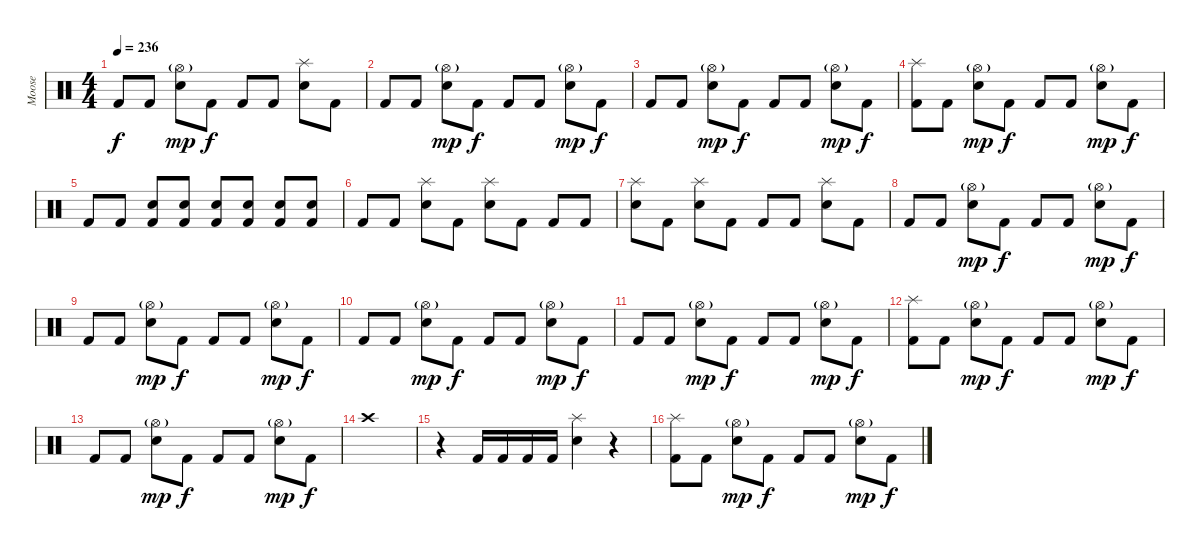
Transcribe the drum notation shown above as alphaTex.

\track ("Moose" "Moose") {instrument percussion}
\staff {score}
\articulation defaults
\ts (4 4)
\tempo 236
\clef neutral
\ks c "Kick (hit) 2".8{dy f} "Kick (hit) 2".8
("Hi-Hat (open)"{g} "Electric Snare (hit)").8{dy mp} "Kick (hit) 2".8{dy f} "Kick (hit) 2".8 "Kick (hit) 2".8 ("Splash (hit)" "Electric Snare (hit)").8 "Kick (hit) 2".8 |
"Kick (hit) 2".8 "Kick (hit) 2".8 ("Hi-Hat (open)"{g} "Electric Snare (hit)").8{dy mp} "Kick (hit) 2".8{dy f} "Kick (hit) 2".8 "Kick (hit) 2".8 ("Hi-Hat (open)"{g} "Electric Snare (hit)").8{dy mp} "Kick (hit) 2".8{dy f} |
"Kick (hit) 2".8 "Kick (hit) 2".8 ("Hi-Hat (open)"{g} "Electric Snare (hit)").8{dy mp} "Kick (hit) 2".8{dy f} "Kick (hit) 2".8 "Kick (hit) 2".8 ("Hi-Hat (open)"{g} "Electric Snare (hit)").8{dy mp} "Kick (hit) 2".8{dy f} |
("Splash (hit)" "Kick (hit) 2").8 "Kick (hit) 2".8 ("Hi-Hat (open)"{g} "Electric Snare (hit)").8{dy mp} "Kick (hit) 2".8{dy f} "Kick (hit) 2".8 "Kick (hit) 2".8 ("Hi-Hat (open)"{g} "Electric Snare (hit)").8{dy mp} "Kick (hit) 2".8{dy f} |
"Kick (hit) 2".8 "Kick (hit) 2".8 ("Electric Snare (hit)" "Kick (hit) 2").8 ("Electric Snare (hit)" "Kick (hit) 2").8 ("Electric Snare (hit)" "Kick (hit) 2").8 ("Electric Snare (hit)" "Kick (hit) 2").8 ("Electric Snare (hit)" "Kick (hit) 2").8 ("Electric Snare (hit)" "Kick (hit) 2").8 |
"Kick (hit) 2".8 "Kick (hit) 2".8 ("Splash (hit)" "Electric Snare (hit)").8 "Kick (hit) 2".8 ("Splash (hit)" "Electric Snare (hit)").8 "Kick (hit) 2".8 "Kick (hit) 2".8 "Kick (hit) 2".8 |
("Splash (hit)" "Electric Snare (hit)").8 "Kick (hit) 2".8 ("Splash (hit)" "Electric Snare (hit)").8 "Kick (hit) 2".8 "Kick (hit) 2".8 "Kick (hit) 2".8 ("Splash (hit)" "Electric Snare (hit)").8 "Kick (hit) 2".8 |
"Kick (hit) 2".8 "Kick (hit) 2".8 ("Hi-Hat (open)"{g} "Electric Snare (hit)").8{dy mp} "Kick (hit) 2".8{dy f} "Kick (hit) 2".8 "Kick (hit) 2".8 ("Hi-Hat (open)"{g} "Electric Snare (hit)").8{dy mp} "Kick (hit) 2".8{dy f} |
"Kick (hit) 2".8 "Kick (hit) 2".8 ("Hi-Hat (open)"{g} "Electric Snare (hit)").8{dy mp} "Kick (hit) 2".8{dy f} "Kick (hit) 2".8 "Kick (hit) 2".8 ("Hi-Hat (open)"{g} "Electric Snare (hit)").8{dy mp} "Kick (hit) 2".8{dy f} |
"Kick (hit) 2".8 "Kick (hit) 2".8 ("Hi-Hat (open)"{g} "Electric Snare (hit)").8{dy mp} "Kick (hit) 2".8{dy f} "Kick (hit) 2".8 "Kick (hit) 2".8 ("Hi-Hat (open)"{g} "Electric Snare (hit)").8{dy mp} "Kick (hit) 2".8{dy f} |
"Kick (hit) 2".8 "Kick (hit) 2".8 ("Hi-Hat (open)"{g} "Electric Snare (hit)").8{dy mp} "Kick (hit) 2".8{dy f} "Kick (hit) 2".8 "Kick (hit) 2".8 ("Hi-Hat (open)"{g} "Electric Snare (hit)").8{dy mp} "Kick (hit) 2".8{dy f} |
("Splash (hit)" "Kick (hit) 2").8 "Kick (hit) 2".8 ("Hi-Hat (open)"{g} "Electric Snare (hit)").8{dy mp} "Kick (hit) 2".8{dy f} "Kick (hit) 2".8 "Kick (hit) 2".8 ("Hi-Hat (open)"{g} "Electric Snare (hit)").8{dy mp} "Kick (hit) 2".8{dy f} |
"Kick (hit) 2".8 "Kick (hit) 2".8 ("Hi-Hat (open)"{g} "Electric Snare (hit)").8{dy mp} "Kick (hit) 2".8{dy f} "Kick (hit) 2".8 "Kick (hit) 2".8 ("Hi-Hat (open)"{g} "Electric Snare (hit)").8{dy mp} "Kick (hit) 2".8{dy f} |
"Crash high (hit)".1 |
r.4 "Kick (hit) 2".16 "Kick (hit) 2".16 "Kick (hit) 2".16 "Kick (hit) 2".16 ("Splash (hit)" "Electric Snare (hit)").4 r.4 |
("Splash (hit)" "Kick (hit) 2").8 "Kick (hit) 2".8 ("Hi-Hat (open)"{g} "Electric Snare (hit)").8{dy mp} "Kick (hit) 2".8{dy f} "Kick (hit) 2".8 "Kick (hit) 2".8 ("Hi-Hat (open)"{g} "Electric Snare (hit)").8{dy mp} "Kick (hit) 2".8{dy f}
